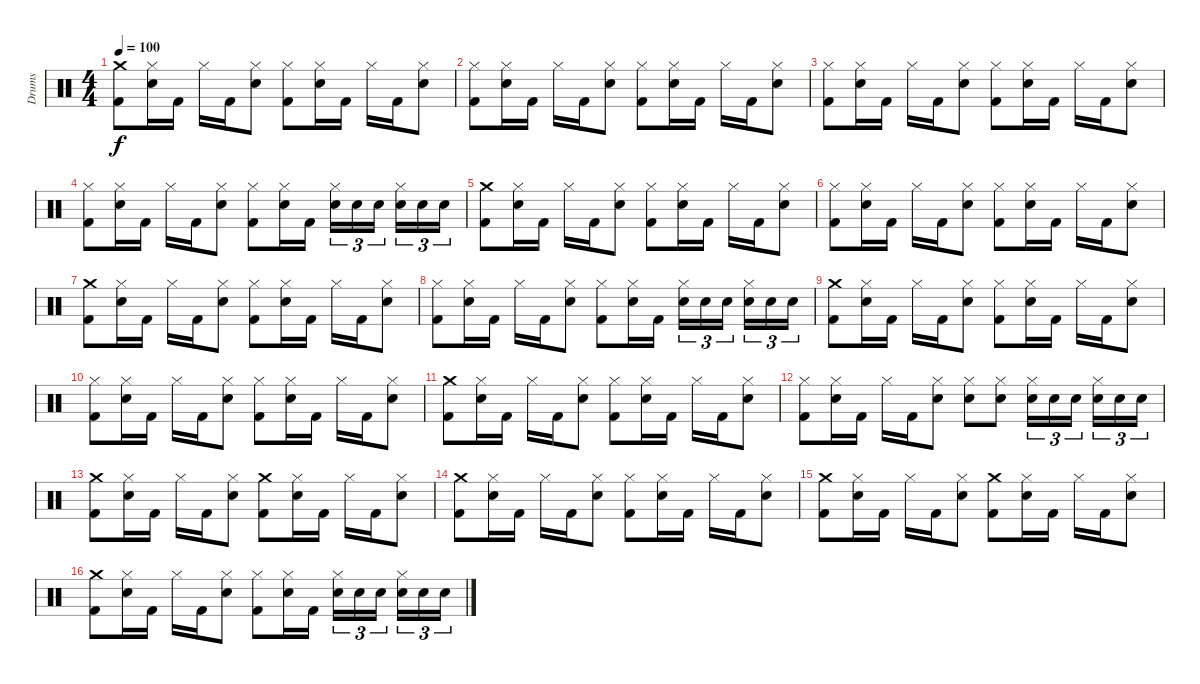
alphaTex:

\track ("Drums" "Drums") {instrument percussion}
\staff {score}
\articulation defaults
\ts (4 4)
\tempo 100
\clef neutral
\ks c
("Crash medium (hit)" "Kick (hit) 2").8{dy f} ("Hi-Hat (closed)" "Snare (hit) 2").16 "Kick (hit) 2".16 "Hi-Hat (closed)".16 "Kick (hit) 2".16 ("Hi-Hat (closed)" "Snare (hit) 2").8 ("Hi-Hat (closed)" "Kick (hit) 2").8 ("Hi-Hat (closed)" "Snare (hit) 2").16 "Kick (hit) 2".16 "Hi-Hat (closed)".16 "Kick (hit) 2".16 ("Hi-Hat (closed)" "Snare (hit) 2").8 |
("Hi-Hat (closed)" "Kick (hit) 2").8 ("Hi-Hat (closed)" "Snare (hit) 2").16 "Kick (hit) 2".16 "Hi-Hat (closed)".16 "Kick (hit) 2".16 ("Hi-Hat (closed)" "Snare (hit) 2").8 ("Hi-Hat (closed)" "Kick (hit) 2").8 ("Hi-Hat (closed)" "Snare (hit) 2").16 "Kick (hit) 2".16 "Hi-Hat (closed)".16 "Kick (hit) 2".16 ("Hi-Hat (closed)" "Snare (hit) 2").8 |
("Hi-Hat (closed)" "Kick (hit) 2").8 ("Hi-Hat (closed)" "Snare (hit) 2").16 "Kick (hit) 2".16 "Hi-Hat (closed)".16 "Kick (hit) 2".16 ("Hi-Hat (closed)" "Snare (hit) 2").8 ("Hi-Hat (closed)" "Kick (hit) 2").8 ("Hi-Hat (closed)" "Snare (hit) 2").16 "Kick (hit) 2".16 "Hi-Hat (closed)".16 "Kick (hit) 2".16 ("Hi-Hat (closed)" "Snare (hit) 2").8 |
("Hi-Hat (closed)" "Kick (hit) 2").8 ("Hi-Hat (closed)" "Snare (hit) 2").16 "Kick (hit) 2".16 "Hi-Hat (closed)".16 "Kick (hit) 2".16 ("Hi-Hat (closed)" "Snare (hit) 2").8 ("Hi-Hat (closed)" "Kick (hit) 2").8 ("Hi-Hat (closed)" "Snare (hit) 2").16 "Kick (hit) 2".16 ("Snare (hit) 2" "Hi-Hat (closed)").16{tu (3 2)} "Snare (hit) 2".16{tu (3 2)} "Snare (hit) 2".16{tu (3 2)} ("Snare (hit) 2" "Hi-Hat (closed)").16{tu (3 2)} "Snare (hit) 2".16{tu (3 2)} "Snare (hit) 2".16{tu (3 2)} |
("Crash medium (hit)" "Kick (hit) 2").8 ("Hi-Hat (closed)" "Snare (hit) 2").16 "Kick (hit) 2".16 "Hi-Hat (closed)".16 "Kick (hit) 2".16 ("Hi-Hat (closed)" "Snare (hit) 2").8 ("Hi-Hat (closed)" "Kick (hit) 2").8 ("Hi-Hat (closed)" "Snare (hit) 2").16 "Kick (hit) 2".16 "Hi-Hat (closed)".16 "Kick (hit) 2".16 ("Hi-Hat (closed)" "Snare (hit) 2").8 |
("Hi-Hat (closed)" "Kick (hit) 2").8 ("Hi-Hat (closed)" "Snare (hit) 2").16 "Kick (hit) 2".16 "Hi-Hat (closed)".16 "Kick (hit) 2".16 ("Hi-Hat (closed)" "Snare (hit) 2").8 ("Hi-Hat (closed)" "Kick (hit) 2").8 ("Hi-Hat (closed)" "Snare (hit) 2").16 "Kick (hit) 2".16 "Hi-Hat (closed)".16 "Kick (hit) 2".16 ("Hi-Hat (closed)" "Snare (hit) 2").8 |
("Crash medium (hit)" "Kick (hit) 2").8 ("Hi-Hat (closed)" "Snare (hit) 2").16 "Kick (hit) 2".16 "Hi-Hat (closed)".16 "Kick (hit) 2".16 ("Hi-Hat (closed)" "Snare (hit) 2").8 ("Hi-Hat (closed)" "Kick (hit) 2").8 ("Hi-Hat (closed)" "Snare (hit) 2").16 "Kick (hit) 2".16 "Hi-Hat (closed)".16 "Kick (hit) 2".16 ("Hi-Hat (closed)" "Snare (hit) 2").8 |
("Hi-Hat (closed)" "Kick (hit) 2").8 ("Hi-Hat (closed)" "Snare (hit) 2").16 "Kick (hit) 2".16 "Hi-Hat (closed)".16 "Kick (hit) 2".16 ("Hi-Hat (closed)" "Snare (hit) 2").8 ("Hi-Hat (closed)" "Kick (hit) 2").8 ("Hi-Hat (closed)" "Snare (hit) 2").16 "Kick (hit) 2".16 ("Snare (hit) 2" "Hi-Hat (closed)").16{tu (3 2)} "Snare (hit) 2".16{tu (3 2)} "Snare (hit) 2".16{tu (3 2)} ("Snare (hit) 2" "Hi-Hat (closed)").16{tu (3 2)} "Snare (hit) 2".16{tu (3 2)} "Snare (hit) 2".16{tu (3 2)} |
("Crash medium (hit)" "Kick (hit) 2").8 ("Hi-Hat (closed)" "Snare (hit) 2").16 "Kick (hit) 2".16 "Hi-Hat (closed)".16 "Kick (hit) 2".16 ("Hi-Hat (closed)" "Snare (hit) 2").8 ("Hi-Hat (closed)" "Kick (hit) 2").8 ("Hi-Hat (closed)" "Snare (hit) 2").16 "Kick (hit) 2".16 "Hi-Hat (closed)".16 "Kick (hit) 2".16 ("Hi-Hat (closed)" "Snare (hit) 2").8 |
("Hi-Hat (closed)" "Kick (hit) 2").8 ("Hi-Hat (closed)" "Snare (hit) 2").16 "Kick (hit) 2".16 "Hi-Hat (closed)".16 "Kick (hit) 2".16 ("Hi-Hat (closed)" "Snare (hit) 2").8 ("Hi-Hat (closed)" "Kick (hit) 2").8 ("Hi-Hat (closed)" "Snare (hit) 2").16 "Kick (hit) 2".16 "Hi-Hat (closed)".16 "Kick (hit) 2".16 ("Hi-Hat (closed)" "Snare (hit) 2").8 |
("Crash medium (hit)" "Kick (hit) 2").8 ("Hi-Hat (closed)" "Snare (hit) 2").16 "Kick (hit) 2".16 "Hi-Hat (closed)".16 "Kick (hit) 2".16 ("Hi-Hat (closed)" "Snare (hit) 2").8 ("Hi-Hat (closed)" "Kick (hit) 2").8 ("Hi-Hat (closed)" "Snare (hit) 2").16 "Kick (hit) 2".16 "Hi-Hat (closed)".16 "Kick (hit) 2".16 ("Hi-Hat (closed)" "Snare (hit) 2").8 |
("Hi-Hat (closed)" "Kick (hit) 2").8 ("Hi-Hat (closed)" "Snare (hit) 2").16 "Kick (hit) 2".16 "Hi-Hat (closed)".16 "Kick (hit) 2".16 ("Hi-Hat (closed)" "Snare (hit) 2").8 ("Hi-Hat (closed)" "Snare (hit) 2").8 ("Hi-Hat (closed)" "Snare (hit) 2").8 ("Snare (hit) 2" "Hi-Hat (closed)").16{tu (3 2)} "Snare (hit) 2".16{tu (3 2)} "Snare (hit) 2".16{tu (3 2)} ("Snare (hit) 2" "Hi-Hat (closed)").16{tu (3 2)} "Snare (hit) 2".16{tu (3 2)} "Snare (hit) 2".16{tu (3 2)} |
("Crash medium (hit)" "Kick (hit) 2").8 ("Hi-Hat (closed)" "Snare (hit) 2").16 "Kick (hit) 2".16 "Hi-Hat (closed)".16 "Kick (hit) 2".16 ("Hi-Hat (closed)" "Snare (hit) 2").8 ("Crash medium (hit)" "Kick (hit) 2").8 ("Hi-Hat (closed)" "Snare (hit) 2").16 "Kick (hit) 2".16 "Hi-Hat (closed)".16 "Kick (hit) 2".16 ("Hi-Hat (closed)" "Snare (hit) 2").8 |
("Crash medium (hit)" "Kick (hit) 2").8 ("Hi-Hat (closed)" "Snare (hit) 2").16 "Kick (hit) 2".16 "Hi-Hat (closed)".16 "Kick (hit) 2".16 ("Hi-Hat (closed)" "Snare (hit) 2").8 ("Hi-Hat (closed)" "Kick (hit) 2").8 ("Hi-Hat (closed)" "Snare (hit) 2").16 "Kick (hit) 2".16 "Hi-Hat (closed)".16 "Kick (hit) 2".16 ("Hi-Hat (closed)" "Snare (hit) 2").8 |
("Crash medium (hit)" "Kick (hit) 2").8 ("Hi-Hat (closed)" "Snare (hit) 2").16 "Kick (hit) 2".16 "Hi-Hat (closed)".16 "Kick (hit) 2".16 ("Hi-Hat (closed)" "Snare (hit) 2").8 ("Crash medium (hit)" "Kick (hit) 2").8 ("Hi-Hat (closed)" "Snare (hit) 2").16 "Kick (hit) 2".16 "Hi-Hat (closed)".16 "Kick (hit) 2".16 ("Hi-Hat (closed)" "Snare (hit) 2").8 |
("Crash medium (hit)" "Kick (hit) 2").8 ("Hi-Hat (closed)" "Snare (hit) 2").16 "Kick (hit) 2".16 "Hi-Hat (closed)".16 "Kick (hit) 2".16 ("Hi-Hat (closed)" "Snare (hit) 2").8 ("Hi-Hat (closed)" "Kick (hit) 2").8 ("Hi-Hat (closed)" "Snare (hit) 2").16 "Kick (hit) 2".16 ("Snare (hit) 2" "Hi-Hat (closed)").16{tu (3 2)} "Snare (hit) 2".16{tu (3 2)} "Snare (hit) 2".16{tu (3 2)} ("Snare (hit) 2" "Hi-Hat (closed)").16{tu (3 2)} "Snare (hit) 2".16{tu (3 2)} "Snare (hit) 2".16{tu (3 2)}
